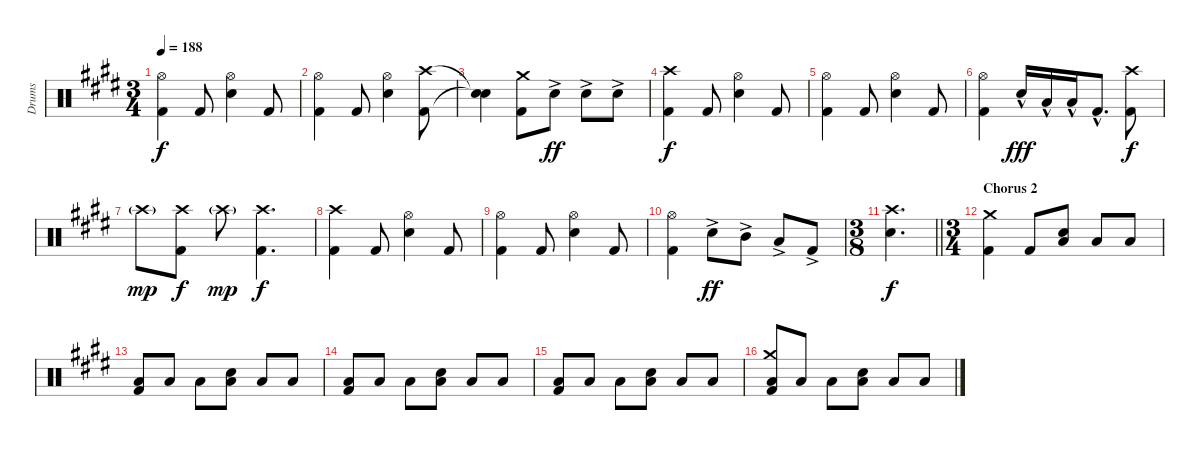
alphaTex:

\track ("Drums" "Drums") {instrument percussion}
\staff {score}
\articulation defaults
\ts (3 4)
\tempo 188
\clef neutral
\ks e
("Hi-Hat (open)" "Kick (hit) 2").4{dy f} "Kick (hit) 2".8 ("Hi-Hat (open)" "Electric Snare (hit)").4 "Kick (hit) 2".8 |
("Hi-Hat (open)" "Kick (hit) 2").4 "Kick (hit) 2".8 ("Hi-Hat (open)" "Electric Snare (hit)").4 ("Crash high (hit)" "Kick (hit) 2").8 |
("Snare (hit)"{t} "Snare (hit)"{t}).4 ("Crash medium (hit)" "Kick (hit) 2").8 "Electric Snare (hit)"{ac}.8{dy ff} "Electric Snare (hit)"{ac}.8 "Electric Snare (hit)"{ac}.8 |
("Crash high (hit)" "Kick (hit) 2").4{dy f} "Kick (hit) 2".8 ("Hi-Hat (open)" "Electric Snare (hit)").4 "Kick (hit) 2".8 |
("Hi-Hat (open)" "Kick (hit) 2").4 "Kick (hit) 2".8 ("Hi-Hat (open)" "Electric Snare (hit)").4 "Kick (hit) 2".8 |
("Hi-Hat (open)" "Kick (hit) 2").4 "Electric Snare (hit)"{hac}.16{dy fff} "Low Tom (hit)"{hac}.16 "Low Tom (hit)"{hac}.16 "Kick (hit) 2"{hac}.8{d} ("Crash high (hit)" "Kick (hit) 2").8{dy f} |
"Crash high (hit)"{g}.8{dy mp} ("Crash high (hit)" "Kick (hit) 2").8{dy f} "Crash high (hit)"{g}.8{dy mp} ("Crash high (hit)" "Kick (hit) 2").4{d dy f} |
("Crash high (hit)" "Kick (hit) 2").4 "Kick (hit) 2".8 ("Hi-Hat (open)" "Electric Snare (hit)").4 "Kick (hit) 2".8 |
("Hi-Hat (open)" "Kick (hit) 2").4 "Kick (hit) 2".8 ("Hi-Hat (open)" "Electric Snare (hit)").4 "Kick (hit) 2".8 |
("Hi-Hat (open)" "Kick (hit) 2").4 "Electric Snare (hit)"{ac}.8{dy ff} "Mid Tom (hit)"{ac}.8 "Low Tom (hit)"{ac}.8 "Kick (hit) 2"{ac}.8 |
\ts (3 8)
\barLineRight lightlight
("Crash high (hit)" "Electric Snare (hit)").4{d dy f} |
\ts (3 4)
\section ("" "Chorus 2")
("Crash medium (hit)" "Kick (hit) 2").4 "Kick (hit) 2".8 ("Electric Snare (hit)" "Low Floor Tom (hit)").8 "Low Floor Tom (hit)".8 "Low Floor Tom (hit)".8 |
("Low Floor Tom (hit)" "Kick (hit) 2").8 "Low Floor Tom (hit)".8 "Low Floor Tom (hit)".8 ("Electric Snare (hit)" "Low Floor Tom (hit)").8 "Low Floor Tom (hit)".8 "Low Floor Tom (hit)".8 |
("Low Floor Tom (hit)" "Kick (hit) 2").8 "Low Floor Tom (hit)".8 "Low Floor Tom (hit)".8 ("Electric Snare (hit)" "Low Floor Tom (hit)").8 "Low Floor Tom (hit)".8 "Low Floor Tom (hit)".8 |
("Low Floor Tom (hit)" "Kick (hit) 2").8 "Low Floor Tom (hit)".8 "Low Floor Tom (hit)".8 ("Electric Snare (hit)" "Low Floor Tom (hit)").8 "Low Floor Tom (hit)".8 "Low Floor Tom (hit)".8 |
("Crash medium (hit)" "Low Floor Tom (hit)" "Kick (hit) 2").8 "Low Floor Tom (hit)".8 "Low Floor Tom (hit)".8 ("Electric Snare (hit)" "Low Floor Tom (hit)").8 "Low Floor Tom (hit)".8 "Low Floor Tom (hit)".8
